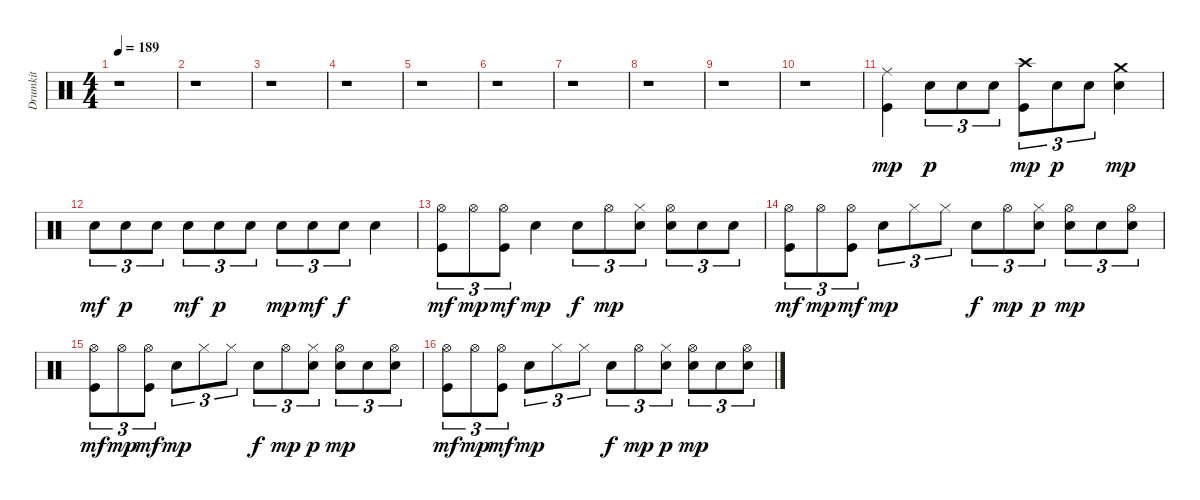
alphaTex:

\track ("Drumkit" "Drumkit") {instrument percussion}
\staff {score}
\articulation defaults
\ts (4 4)
\tempo 189
\clef neutral
\ks c
r.1{dy f} |
r.1 |
r.1 |
r.1 |
r.1 |
r.1 |
r.1 |
r.1 |
r.1 |
r.1 |
("Kick (hit)" "Ride (middle)").4{dy mp} "Snare (hit) 2".8{tu (3 2) dy p} "Snare (hit) 2".8{tu (3 2)} "Snare (hit) 2".8{tu (3 2)} ("Crash high (hit)" "Kick (hit)").8{tu (3 2) dy mp} "Snare (hit) 2".8{tu (3 2) dy p} "Snare (hit) 2".8{tu (3 2)} ("Snare (hit) 2" "Crash medium (hit)").4{dy mp} |
"Snare (hit) 2".8{tu (3 2) dy mf} "Snare (hit) 2".8{tu (3 2) dy p} "Snare (hit) 2".8{tu (3 2)} "Snare (hit) 2".8{tu (3 2) dy mf} "Snare (hit) 2".8{tu (3 2) dy p} "Snare (hit) 2".8{tu (3 2)} "Snare (hit) 2".8{tu (3 2) dy mp} "Snare (hit) 2".8{tu (3 2) dy mf} "Snare (hit) 2".8{tu (3 2) dy f} "Snare (hit) 2".4 |
("Kick (hit)" "Hi-Hat (open)").8{tu (3 2) dy mf} "Hi-Hat (open)".8{tu (3 2) dy mp} ("Kick (hit)" "Hi-Hat (open)").8{tu (3 2) dy mf} "Snare (hit) 2".4{dy mp} "Snare (hit) 2".8{tu (3 2) dy f} "Hi-Hat (open)".8{tu (3 2) dy mp} ("Hi-Hat (closed)" "Snare (hit) 2").8{tu (3 2)} ("Hi-Hat (open)" "Snare (hit) 2").8{tu (3 2)} "Snare (hit) 2".8{tu (3 2)} "Snare (hit) 2".8{tu (3 2)} |
("Kick (hit)" "Hi-Hat (open)").8{tu (3 2) dy mf} "Hi-Hat (open)".8{tu (3 2) dy mp} ("Kick (hit)" "Hi-Hat (open)").8{tu (3 2) dy mf} "Snare (hit) 2".8{tu (3 2) dy mp} "Hi-Hat (closed)".8{tu (3 2)} "Hi-Hat (closed)".8{tu (3 2)} "Snare (hit) 2".8{tu (3 2) dy f} "Hi-Hat (open)".8{tu (3 2) dy mp} ("Hi-Hat (closed)" "Snare (hit) 2").8{tu (3 2) dy p} ("Hi-Hat (open)" "Snare (hit) 2").8{tu (3 2) dy mp} "Snare (hit) 2".8{tu (3 2)} ("Snare (hit) 2" "Hi-Hat (open)").8{tu (3 2)} |
("Kick (hit)" "Hi-Hat (open)").8{tu (3 2) dy mf} "Hi-Hat (open)".8{tu (3 2) dy mp} ("Kick (hit)" "Hi-Hat (open)").8{tu (3 2) dy mf} "Snare (hit) 2".8{tu (3 2) dy mp} "Hi-Hat (closed)".8{tu (3 2)} "Hi-Hat (closed)".8{tu (3 2)} "Snare (hit) 2".8{tu (3 2) dy f} "Hi-Hat (open)".8{tu (3 2) dy mp} ("Hi-Hat (closed)" "Snare (hit) 2").8{tu (3 2) dy p} ("Hi-Hat (open)" "Snare (hit) 2").8{tu (3 2) dy mp} "Snare (hit) 2".8{tu (3 2)} ("Snare (hit) 2" "Hi-Hat (open)").8{tu (3 2)} |
("Kick (hit)" "Hi-Hat (open)").8{tu (3 2) dy mf} "Hi-Hat (open)".8{tu (3 2) dy mp} ("Kick (hit)" "Hi-Hat (open)").8{tu (3 2) dy mf} "Snare (hit) 2".8{tu (3 2) dy mp} "Hi-Hat (closed)".8{tu (3 2)} "Hi-Hat (closed)".8{tu (3 2)} "Snare (hit) 2".8{tu (3 2) dy f} "Hi-Hat (open)".8{tu (3 2) dy mp} ("Hi-Hat (closed)" "Snare (hit) 2").8{tu (3 2) dy p} ("Hi-Hat (open)" "Snare (hit) 2").8{tu (3 2) dy mp} "Snare (hit) 2".8{tu (3 2)} ("Snare (hit) 2" "Hi-Hat (open)").8{tu (3 2)}
